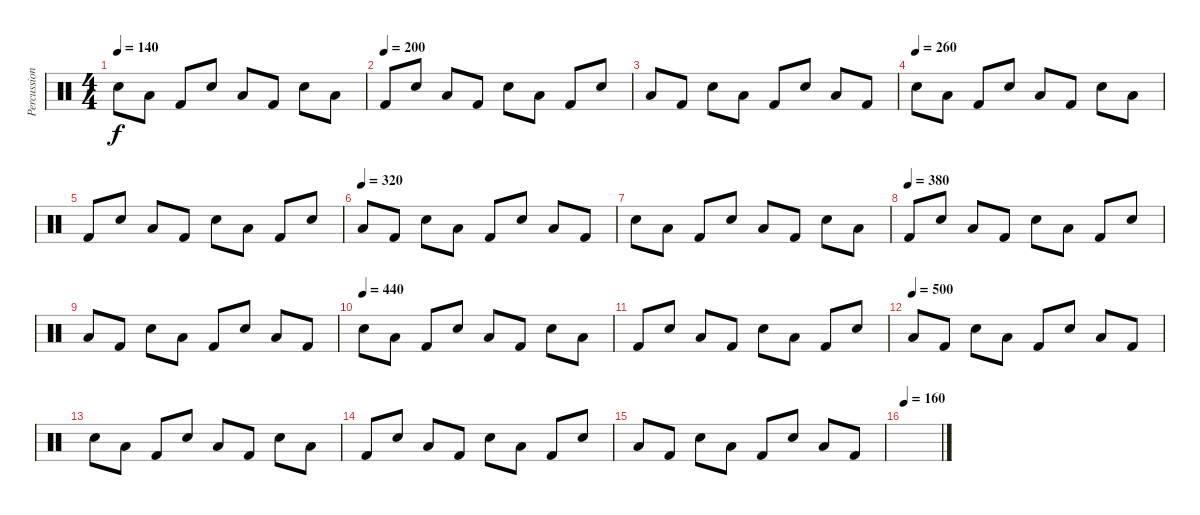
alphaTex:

\track ("Percussion" "Percussion") {instrument percussion}
\staff {score}
\articulation defaults
\ts (4 4)
\tempo 140
\clef neutral
\ks c "Snare (hit) 2".8{dy f} "Low Tom (hit)".8 "Kick (hit) 2".8 "Snare (hit) 2".8 "Low Tom (hit)".8 "Kick (hit) 2".8 "Snare (hit) 2".8 "Low Tom (hit)".8
|
\tempo (200)
"Kick (hit) 2".8 "Snare (hit) 2".8 "Low Tom (hit)".8 "Kick (hit) 2".8 "Snare (hit) 2".8 "Low Tom (hit)".8 "Kick (hit) 2".8 "Snare (hit) 2".8 |
"Low Tom (hit)".8 "Kick (hit) 2".8 "Snare (hit) 2".8 "Low Tom (hit)".8 "Kick (hit) 2".8 "Snare (hit) 2".8 "Low Tom (hit)".8 "Kick (hit) 2".8 |
\tempo (260)
"Snare (hit) 2".8 "Low Tom (hit)".8 "Kick (hit) 2".8 "Snare (hit) 2".8 "Low Tom (hit)".8 "Kick (hit) 2".8 "Snare (hit) 2".8 "Low Tom (hit)".8 |
"Kick (hit) 2".8 "Snare (hit) 2".8 "Low Tom (hit)".8 "Kick (hit) 2".8 "Snare (hit) 2".8 "Low Tom (hit)".8 "Kick (hit) 2".8 "Snare (hit) 2".8 |
\tempo (320)
"Low Tom (hit)".8 "Kick (hit) 2".8 "Snare (hit) 2".8 "Low Tom (hit)".8 "Kick (hit) 2".8 "Snare (hit) 2".8 "Low Tom (hit)".8 "Kick (hit) 2".8 |
"Snare (hit) 2".8 "Low Tom (hit)".8 "Kick (hit) 2".8 "Snare (hit) 2".8 "Low Tom (hit)".8 "Kick (hit) 2".8 "Snare (hit) 2".8 "Low Tom (hit)".8 |
\tempo (380)
"Kick (hit) 2".8 "Snare (hit) 2".8 "Low Tom (hit)".8 "Kick (hit) 2".8 "Snare (hit) 2".8 "Low Tom (hit)".8 "Kick (hit) 2".8 "Snare (hit) 2".8 |
"Low Tom (hit)".8 "Kick (hit) 2".8 "Snare (hit) 2".8 "Low Tom (hit)".8 "Kick (hit) 2".8 "Snare (hit) 2".8 "Low Tom (hit)".8 "Kick (hit) 2".8 |
\tempo (440)
"Snare (hit) 2".8 "Low Tom (hit)".8 "Kick (hit) 2".8 "Snare (hit) 2".8 "Low Tom (hit)".8 "Kick (hit) 2".8 "Snare (hit) 2".8 "Low Tom (hit)".8 |
"Kick (hit) 2".8 "Snare (hit) 2".8 "Low Tom (hit)".8 "Kick (hit) 2".8 "Snare (hit) 2".8 "Low Tom (hit)".8 "Kick (hit) 2".8 "Snare (hit) 2".8 |
\tempo (500)
"Low Tom (hit)".8 "Kick (hit) 2".8 "Snare (hit) 2".8 "Low Tom (hit)".8 "Kick (hit) 2".8 "Snare (hit) 2".8 "Low Tom (hit)".8 "Kick (hit) 2".8 |
"Snare (hit) 2".8 "Low Tom (hit)".8 "Kick (hit) 2".8 "Snare (hit) 2".8 "Low Tom (hit)".8 "Kick (hit) 2".8 "Snare (hit) 2".8 "Low Tom (hit)".8 |
"Kick (hit) 2".8 "Snare (hit) 2".8 "Low Tom (hit)".8 "Kick (hit) 2".8 "Snare (hit) 2".8 "Low Tom (hit)".8 "Kick (hit) 2".8 "Snare (hit) 2".8 |
"Low Tom (hit)".8 "Kick (hit) 2".8 "Snare (hit) 2".8 "Low Tom (hit)".8 "Kick (hit) 2".8 "Snare (hit) 2".8 "Low Tom (hit)".8 "Kick (hit) 2".8 |
\tempo 160
